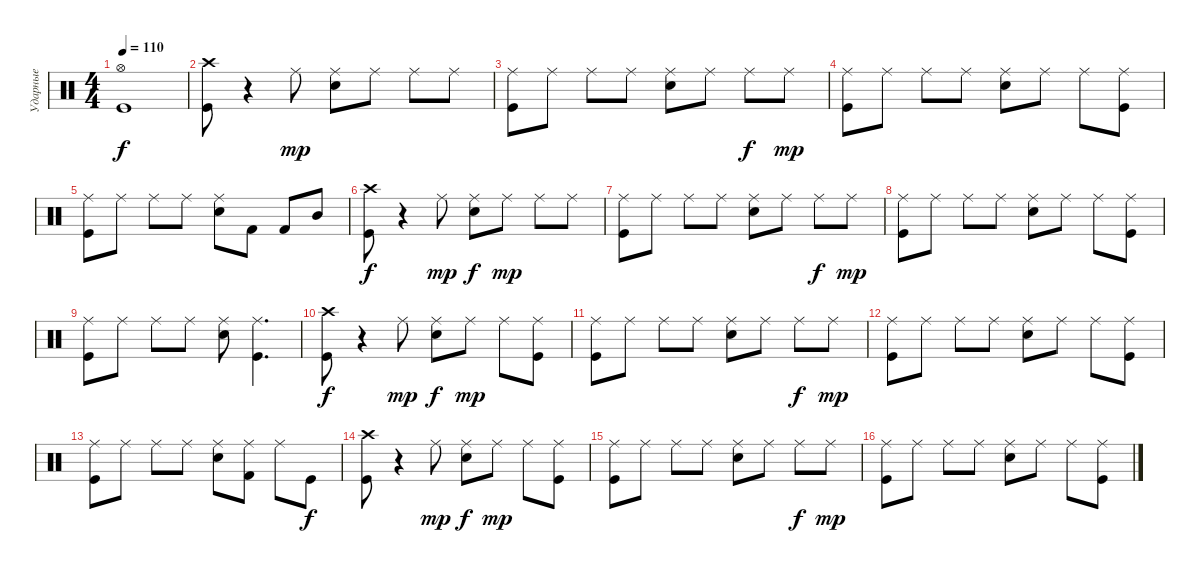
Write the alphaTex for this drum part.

\track ("Ударные" "Ударные") {instrument percussion}
\staff {score}
\articulation defaults
\ts (4 4)
\tempo 110
\clef neutral
\ks c
("Hi-Hat (open)" "Kick (hit)").1{dy f} |
("Crash high (hit)" "Kick (hit)").8 r.4 "Ride (middle)".8{dy mp} ("Ride (middle)" "Snare (hit) 2").8 "Ride (middle)".8 "Ride (middle)".8 "Ride (middle)".8 |
("Ride (middle)" "Kick (hit)").8 "Ride (middle)".8 "Ride (middle)".8 "Ride (middle)".8 ("Ride (middle)" "Snare (hit) 2").8 "Ride (middle)".8 "Ride (middle)".8{dy f} "Ride (middle)".8{dy mp} |
("Ride (middle)" "Kick (hit)").8 "Ride (middle)".8 "Ride (middle)".8 "Ride (middle)".8 ("Ride (middle)" "Snare (hit) 2").8 "Ride (middle)".8 "Ride (middle)".8 ("Ride (middle)" "Kick (hit)").8 |
("Ride (middle)" "Kick (hit)").8 "Ride (middle)".8 "Ride (middle)".8 "Ride (middle)".8 ("Ride (middle)" "Snare (hit) 2").8 "Kick (hit) 2".8 "Kick (hit) 2".8 "Mid Tom (hit)".8 |
("Crash high (hit)" "Kick (hit)").8{dy f} r.4 "Ride (middle)".8{dy mp} ("Ride (middle)" "Snare (hit) 2").8{dy f} "Ride (middle)".8{dy mp} "Ride (middle)".8 "Ride (middle)".8 |
("Ride (middle)" "Kick (hit)").8 "Ride (middle)".8 "Ride (middle)".8 "Ride (middle)".8 ("Ride (middle)" "Snare (hit) 2").8 "Ride (middle)".8 "Ride (middle)".8{dy f} "Ride (middle)".8{dy mp} |
("Ride (middle)" "Kick (hit)").8 "Ride (middle)".8 "Ride (middle)".8 "Ride (middle)".8 ("Ride (middle)" "Snare (hit) 2").8 "Ride (middle)".8 "Ride (middle)".8 ("Ride (middle)" "Kick (hit)").8 |
("Ride (middle)" "Kick (hit)").8 "Ride (middle)".8 "Ride (middle)".8 "Ride (middle)".8 ("Ride (middle)" "Snare (hit) 2").8 ("Ride (middle)" "Kick (hit)").4{d} |
("Crash high (hit)" "Kick (hit)").8{dy f} r.4 "Ride (middle)".8{dy mp} ("Ride (middle)" "Snare (hit) 2").8{dy f} "Ride (middle)".8{dy mp} "Ride (middle)".8 ("Ride (middle)" "Kick (hit)").8 |
("Ride (middle)" "Kick (hit)").8 "Ride (middle)".8 "Ride (middle)".8 "Ride (middle)".8 ("Ride (middle)" "Snare (hit) 2").8 "Ride (middle)".8 "Ride (middle)".8{dy f} "Ride (middle)".8{dy mp} |
("Ride (middle)" "Kick (hit)").8 "Ride (middle)".8 "Ride (middle)".8 "Ride (middle)".8 ("Ride (middle)" "Snare (hit) 2").8 "Ride (middle)".8 "Ride (middle)".8 ("Ride (middle)" "Kick (hit)").8 |
("Ride (middle)" "Kick (hit)").8 "Ride (middle)".8 "Ride (middle)".8 "Ride (middle)".8 ("Ride (middle)" "Snare (hit) 2").8 ("Ride (middle)" "Kick (hit) 2").8 "Ride (middle)".8 "Kick (hit)".8{dy f} |
("Crash high (hit)" "Kick (hit)").8 r.4 "Ride (middle)".8{dy mp} ("Ride (middle)" "Snare (hit) 2").8{dy f} "Ride (middle)".8{dy mp} "Ride (middle)".8 ("Ride (middle)" "Kick (hit)").8 |
("Ride (middle)" "Kick (hit)").8 "Ride (middle)".8 "Ride (middle)".8 "Ride (middle)".8 ("Ride (middle)" "Snare (hit) 2").8 "Ride (middle)".8 "Ride (middle)".8{dy f} "Ride (middle)".8{dy mp} |
("Ride (middle)" "Kick (hit)").8 "Ride (middle)".8 "Ride (middle)".8 "Ride (middle)".8 ("Ride (middle)" "Snare (hit) 2").8 "Ride (middle)".8 "Ride (middle)".8 ("Ride (middle)" "Kick (hit)").8
